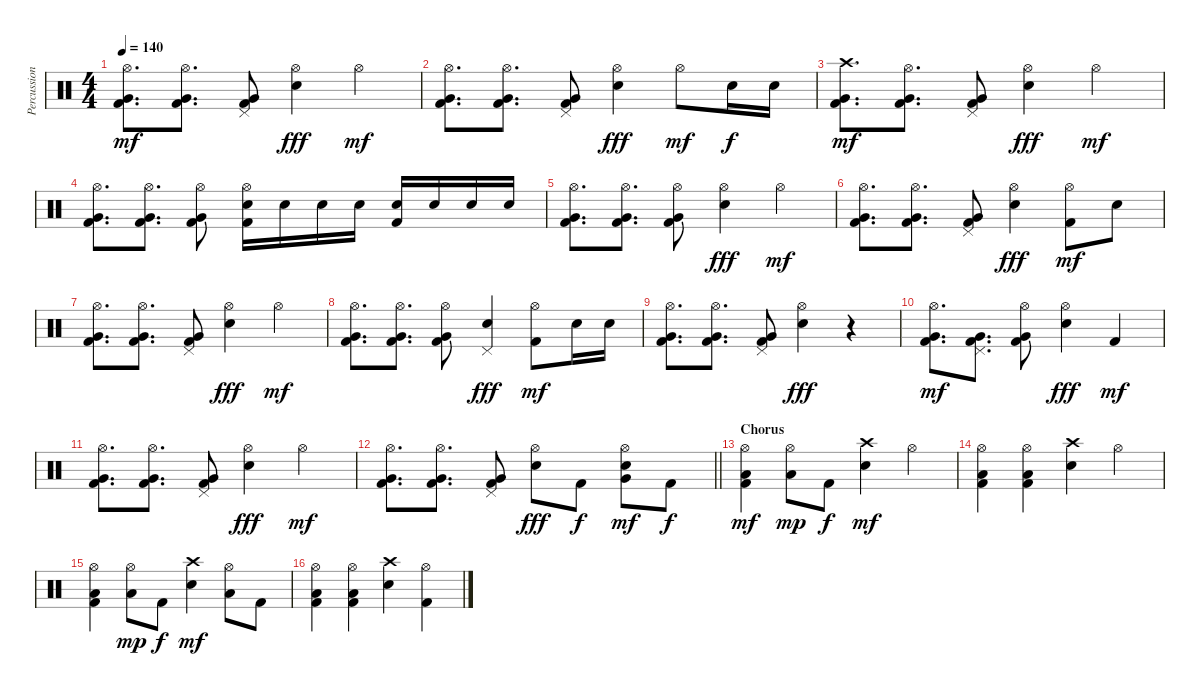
\track ("Percussion" "Percussion") {instrument percussion}
\staff {score}
\articulation defaults
\ts (4 4)
\tempo 140
\clef neutral
\ks c
("Hi-Hat (open)" "Kick (hit) 2" "Very Low Tom (hit)").8{d dy mf} ("Hi-Hat (open)" "Kick (hit) 2" "Very Low Tom (hit)").8{d} ("Pedal Hi-Hat (hit)" "Kick (hit) 2" "Very Low Tom (hit)").8 ("Hi-Hat (open)" "Snare (hit) 2").4{dy fff} "Hi-Hat (open)".4{dy mf} |
("Hi-Hat (open)" "Kick (hit) 2" "Very Low Tom (hit)").8{d} ("Hi-Hat (open)" "Kick (hit) 2" "Very Low Tom (hit)").8{d} ("Pedal Hi-Hat (hit)" "Kick (hit) 2" "Very Low Tom (hit)").8 ("Hi-Hat (open)" "Snare (hit) 2").4{dy fff} "Hi-Hat (open)".8{dy mf} "Snare (hit) 2".16{dy f} "Snare (hit) 2".16 |
("Crash high (hit)" "Kick (hit) 2" "Very Low Tom (hit)").8{d dy mf} ("Hi-Hat (open)" "Kick (hit) 2" "Very Low Tom (hit)").8{d} ("Pedal Hi-Hat (hit)" "Kick (hit) 2" "Very Low Tom (hit)").8 ("Hi-Hat (open)" "Snare (hit) 2").4{dy fff} "Hi-Hat (open)".4{dy mf} |
("Hi-Hat (open)" "Kick (hit) 2" "Very Low Tom (hit)").8{d} ("Hi-Hat (open)" "Kick (hit) 2" "Very Low Tom (hit)").8{d} ("Hi-Hat (open)" "Kick (hit) 2" "Very Low Tom (hit)").8 ("Hi-Hat (open)" "Snare (hit) 2" "Kick (hit) 2").16 "Snare (hit) 2".16 "Snare (hit) 2".16 "Snare (hit) 2".16 ("Snare (hit) 2" "Kick (hit) 2").16 "Snare (hit) 2".16 "Snare (hit) 2".16 "Snare (hit) 2".16 |
("Hi-Hat (open)" "Kick (hit) 2" "Very Low Tom (hit)").8{d} ("Hi-Hat (open)" "Kick (hit) 2" "Very Low Tom (hit)").8{d} ("Hi-Hat (open)" "Kick (hit) 2" "Very Low Tom (hit)").8 ("Hi-Hat (open)" "Snare (hit) 2").4{dy fff} "Hi-Hat (open)".4{dy mf} |
("Hi-Hat (open)" "Kick (hit) 2" "Very Low Tom (hit)").8{d} ("Hi-Hat (open)" "Kick (hit) 2" "Very Low Tom (hit)").8{d} ("Pedal Hi-Hat (hit)" "Kick (hit) 2" "Very Low Tom (hit)").8 ("Hi-Hat (open)" "Snare (hit) 2").4{dy fff} ("Hi-Hat (open)" "Kick (hit) 2").8{dy mf} "Snare (hit) 2".8 |
("Hi-Hat (open)" "Kick (hit) 2" "Very Low Tom (hit)").8{d} ("Hi-Hat (open)" "Kick (hit) 2" "Very Low Tom (hit)").8{d} ("Pedal Hi-Hat (hit)" "Kick (hit) 2" "Very Low Tom (hit)").8 ("Hi-Hat (open)" "Snare (hit) 2").4{dy fff} "Hi-Hat (open)".4{dy mf} |
("Hi-Hat (open)" "Kick (hit) 2" "Very Low Tom (hit)").8{d} ("Hi-Hat (open)" "Kick (hit) 2" "Very Low Tom (hit)").8{d} ("Hi-Hat (open)" "Kick (hit) 2" "Very Low Tom (hit)").8 ("Pedal Hi-Hat (hit)" "Snare (hit) 2").4{dy fff} ("Hi-Hat (open)" "Kick (hit) 2").8{dy mf} "Snare (hit) 2".16 "Snare (hit) 2".16 |
("Hi-Hat (open)" "Kick (hit) 2" "Very Low Tom (hit)").8{d} ("Hi-Hat (open)" "Kick (hit) 2" "Very Low Tom (hit)").8{d} ("Pedal Hi-Hat (hit)" "Kick (hit) 2" "Very Low Tom (hit)").8 ("Hi-Hat (open)" "Snare (hit) 2").4{dy fff} r.4 |
("Hi-Hat (open)" "Kick (hit) 2" "Very Low Tom (hit)").8{d dy mf} ("Pedal Hi-Hat (hit)" "Kick (hit) 2" "Very Low Tom (hit)").8{d} ("Hi-Hat (open)" "Kick (hit) 2" "Very Low Tom (hit)").8 ("Hi-Hat (open)" "Snare (hit) 2").4{dy fff} "Kick (hit) 2".4{dy mf} |
("Hi-Hat (open)" "Kick (hit) 2" "Very Low Tom (hit)").8{d} ("Hi-Hat (open)" "Kick (hit) 2" "Very Low Tom (hit)").8{d} ("Pedal Hi-Hat (hit)" "Kick (hit) 2" "Very Low Tom (hit)").8 ("Hi-Hat (open)" "Snare (hit) 2").4{dy fff} "Hi-Hat (open)".4{dy mf} |
\barLineRight lightlight
("Hi-Hat (open)" "Kick (hit) 2" "Very Low Tom (hit)").8{d} ("Hi-Hat (open)" "Kick (hit) 2" "Very Low Tom (hit)").8{d} ("Pedal Hi-Hat (hit)" "Kick (hit) 2" "Very Low Tom (hit)").8 ("Hi-Hat (open)" "Snare (hit) 2").8{dy fff} "Kick (hit) 2".8{dy f} ("Snare (hit) 2" "Very Low Tom (hit)" "Hi-Hat (open)").8{dy mf} "Kick (hit) 2".8{dy f} |
\section ("" "Chorus")
("Hi-Hat (open)" "Kick (hit) 2" "Low Floor Tom (hit)").4{dy mf} ("Hi-Hat (open)" "Low Floor Tom (hit)").8{dy mp} "Kick (hit) 2".8{dy f} ("Crash high (hit)" "Snare (hit) 2").4{dy mf} "Hi-Hat (open)".4 |
("Hi-Hat (open)" "Kick (hit) 2" "Low Floor Tom (hit)").4 ("Hi-Hat (open)" "Kick (hit) 2" "Low Floor Tom (hit)").4 ("Crash high (hit)" "Snare (hit) 2").4 "Hi-Hat (open)".4 |
("Hi-Hat (open)" "Kick (hit) 2" "Low Floor Tom (hit)").4 ("Hi-Hat (open)" "Low Floor Tom (hit)").8{dy mp} "Kick (hit) 2".8{dy f} ("Crash high (hit)" "Snare (hit) 2").4{dy mf} ("Hi-Hat (open)" "Low Floor Tom (hit)").8 "Kick (hit) 2".8 |
("Hi-Hat (open)" "Kick (hit) 2" "Low Floor Tom (hit)").4 ("Hi-Hat (open)" "Kick (hit) 2" "Low Floor Tom (hit)").4 ("Crash high (hit)" "Snare (hit) 2").4 ("Hi-Hat (open)" "Kick (hit) 2").4
